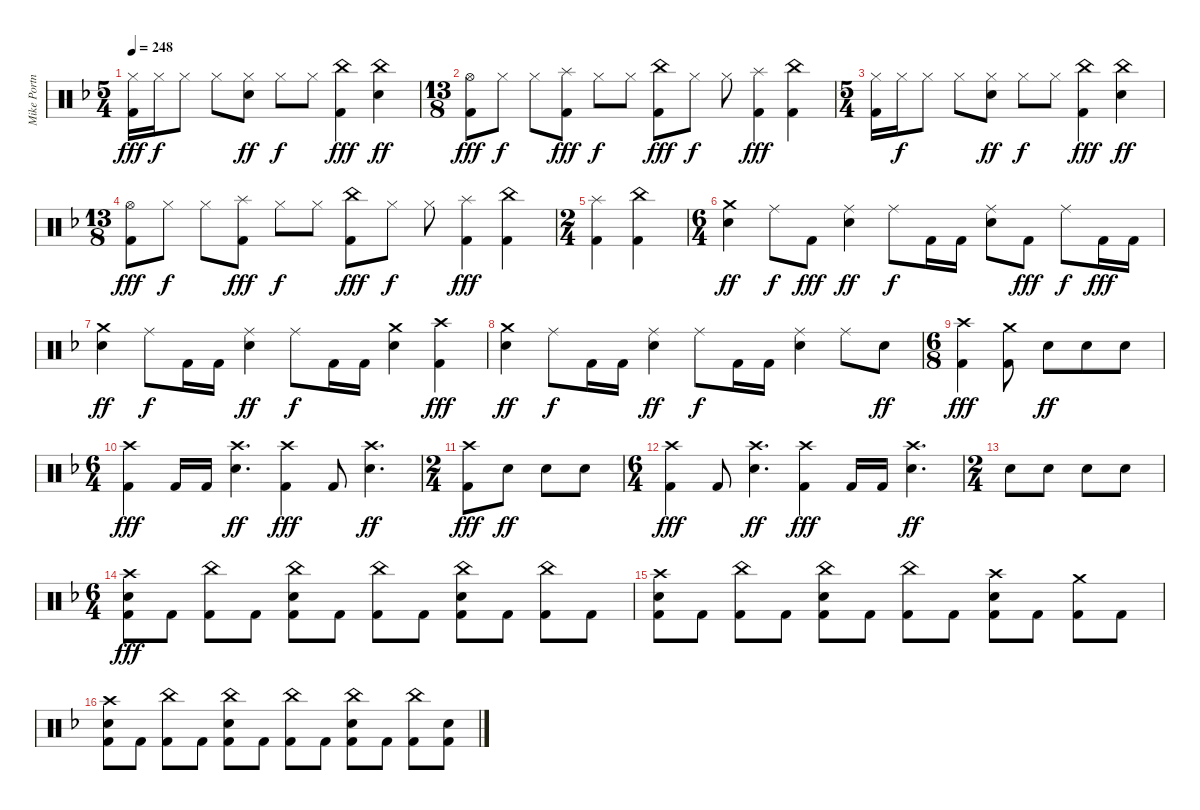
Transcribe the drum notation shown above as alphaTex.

\track ("Mike Portnoy Drums" "Mike Portn") {instrument percussion}
\staff {score}
\articulation defaults
\ts (5 4)
\tempo 248
\clef neutral
\ks dminor
("Hi-Hat (closed)" "Kick (hit) 2").16{dy fff} "Hi-Hat (closed)".16{dy f} "Hi-Hat (closed)".8 "Hi-Hat (closed)".8 ("Hi-Hat (closed)" "Electric Snare (hit)").8{dy ff} "Hi-Hat (closed)".8{dy f} "Hi-Hat (closed)".8 ("China (hit)" "Kick (hit) 2").4{dy fff} ("China (hit)" "Electric Snare (hit)").4{dy ff} |
\ts (13 8)
("Hi-Hat (open)" "Kick (hit) 2").8{dy fff} "Hi-Hat (closed)".8{dy f} "Hi-Hat (closed)".8 ("Splash (hit)" "Kick (hit) 2").8{dy fff} "Hi-Hat (closed)".8{dy f} "Hi-Hat (closed)".8 ("China (hit)" "Kick (hit) 2").8{dy fff} "Hi-Hat (closed)".8{dy f} "Hi-Hat (closed)".8 ("Splash (hit)" "Kick (hit) 2").4{dy fff} ("China (hit)" "Kick (hit) 2").4 |
\ts (5 4)
("Hi-Hat (closed)" "Kick (hit) 2").16 "Hi-Hat (closed)".16{dy f} "Hi-Hat (closed)".8 "Hi-Hat (closed)".8 ("Hi-Hat (closed)" "Electric Snare (hit)").8{dy ff} "Hi-Hat (closed)".8{dy f} "Hi-Hat (closed)".8 ("China (hit)" "Kick (hit) 2").4{dy fff} ("China (hit)" "Electric Snare (hit)").4{dy ff} |
\ts (13 8)
("Hi-Hat (open)" "Kick (hit) 2").8{dy fff} "Hi-Hat (closed)".8{dy f} "Hi-Hat (closed)".8 ("Splash (hit)" "Kick (hit) 2").8{dy fff} "Hi-Hat (closed)".8{dy f} "Hi-Hat (closed)".8 ("China (hit)" "Kick (hit) 2").8{dy fff} "Hi-Hat (closed)".8{dy f} "Hi-Hat (closed)".8 ("Splash (hit)" "Kick (hit) 2").4{dy fff} ("China (hit)" "Kick (hit) 2").4 |
\ts (2 4)
("Splash (hit)" "Kick (hit) 2").4 ("China (hit)" "Kick (hit) 2").4 |
\ts (6 4)
("Crash medium (hit)" "Electric Snare (hit)").4{dy ff} "Ride (middle)".8{dy f} "Kick (hit) 2".8{dy fff} ("Ride (middle)" "Electric Snare (hit)").4{dy ff} "Ride (middle)".8{dy f} "Kick (hit) 2".16 "Kick (hit) 2".16 ("Ride (middle)" "Electric Snare (hit)").8 "Kick (hit) 2".8{dy fff} "Ride (middle)".8{dy f} "Kick (hit) 2".16{dy fff} "Kick (hit) 2".16 |
("Crash medium (hit)" "Electric Snare (hit)").4{dy ff} "Ride (middle)".8{dy f} "Kick (hit) 2".16 "Kick (hit) 2".16 ("Ride (middle)" "Electric Snare (hit)").4{dy ff} "Ride (middle)".8{dy f} "Kick (hit) 2".16 "Kick (hit) 2".16 ("Crash medium (hit)" "Electric Snare (hit)").4 ("Crash high (hit)" "Kick (hit) 2").4{dy fff} |
("Crash medium (hit)" "Electric Snare (hit)").4{dy ff} "Ride (middle)".8{dy f} "Kick (hit) 2".16 "Kick (hit) 2".16 ("Ride (middle)" "Electric Snare (hit)").4{dy ff} "Ride (middle)".8{dy f} "Kick (hit) 2".16 "Kick (hit) 2".16 ("Ride (middle)" "Electric Snare (hit)").4 "Ride (middle)".8 "Electric Snare (hit)".8{dy ff} |
\ts (6 8)
("Crash high (hit)" "Kick (hit) 2").4{dy fff} ("Crash medium (hit)" "Kick (hit) 2").8 "Electric Snare (hit)".8{dy ff} "Electric Snare (hit)".8 "Electric Snare (hit)".8 |
\ts (6 4)
("Crash high (hit)" "Kick (hit) 2").4{dy fff} "Kick (hit) 2".16 "Kick (hit) 2".16 ("Crash high (hit)" "Electric Snare (hit)").4{d dy ff} ("Crash high (hit)" "Kick (hit) 2").4{dy fff} "Kick (hit) 2".8 ("Crash high (hit)" "Electric Snare (hit)").4{d dy ff} |
\ts (2 4)
("Crash high (hit)" "Kick (hit) 2").8{dy fff} "Electric Snare (hit)".8{dy ff} "Electric Snare (hit)".8 "Electric Snare (hit)".8 |
\ts (6 4)
("Crash high (hit)" "Kick (hit) 2").4{dy fff} "Kick (hit) 2".8 ("Crash high (hit)" "Electric Snare (hit)").4{d dy ff} ("Crash high (hit)" "Kick (hit) 2").4{dy fff} "Kick (hit) 2".16 "Kick (hit) 2".16 ("Crash high (hit)" "Electric Snare (hit)").4{d dy ff} |
\ts (2 4)
"Electric Snare (hit)".8 "Electric Snare (hit)".8 "Electric Snare (hit)".8 "Electric Snare (hit)".8 |
\ts (6 4)
("Crash high (hit)" "Electric Snare (hit)" "Kick (hit) 2").8{dy fff} "Kick (hit) 2".8 ("China (hit)" "Kick (hit) 2").8 "Kick (hit) 2".8 ("China (hit)" "Electric Snare (hit)" "Kick (hit) 2").8 "Kick (hit) 2".8 ("China (hit)" "Kick (hit) 2").8 "Kick (hit) 2".8 ("China (hit)" "Electric Snare (hit)" "Kick (hit) 2").8 "Kick (hit) 2".8 ("China (hit)" "Kick (hit) 2").8 "Kick (hit) 2".8 |
("Crash high (hit)" "Electric Snare (hit)" "Kick (hit) 2").8 "Kick (hit) 2".8 ("China (hit)" "Kick (hit) 2").8 "Kick (hit) 2".8 ("China (hit)" "Electric Snare (hit)" "Kick (hit) 2").8 "Kick (hit) 2".8 ("China (hit)" "Kick (hit) 2").8 "Kick (hit) 2".8 ("Crash high (hit)" "Electric Snare (hit)" "Kick (hit) 2").8 "Kick (hit) 2".8 ("Crash medium (hit)" "Kick (hit) 2").8 "Kick (hit) 2".8 |
("Crash high (hit)" "Electric Snare (hit)" "Kick (hit) 2").8 "Kick (hit) 2".8 ("China (hit)" "Kick (hit) 2").8 "Kick (hit) 2".8 ("China (hit)" "Electric Snare (hit)" "Kick (hit) 2").8 "Kick (hit) 2".8 ("China (hit)" "Kick (hit) 2").8 "Kick (hit) 2".8 ("China (hit)" "Electric Snare (hit)" "Kick (hit) 2").8 "Kick (hit) 2".8 ("China (hit)" "Kick (hit) 2").8 ("Electric Snare (hit)" "Kick (hit) 2").8
